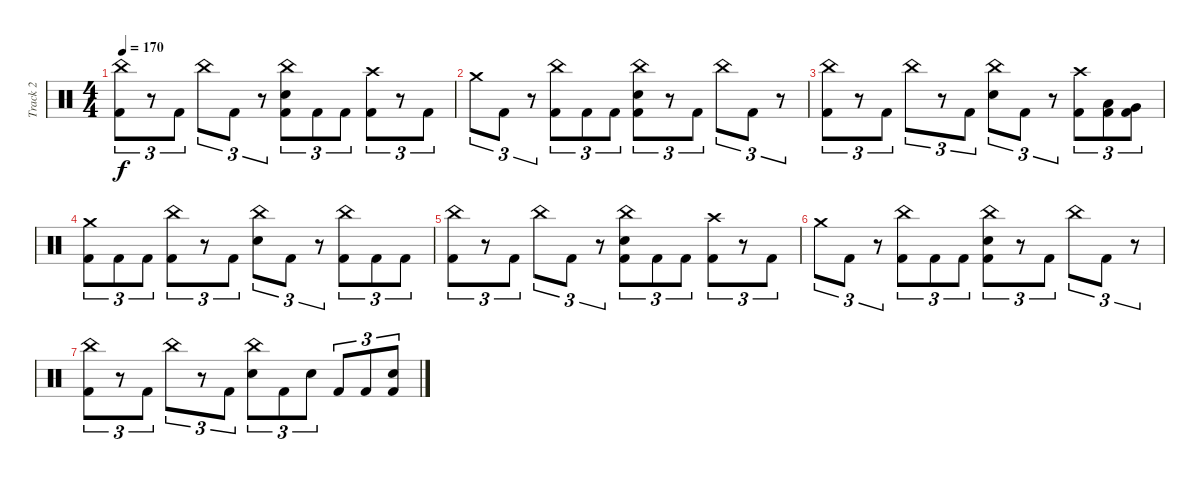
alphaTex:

\track ("Track 2" "Track 2") {instrument percussion}
\staff {score}
\articulation defaults
\ts (4 4)
\tempo 170
\clef neutral
\ks c
("China (hit)" "Kick (hit) 2").8{tu (3 2) dy f} r.8{tu (3 2)} "Kick (hit) 2".8{tu (3 2)} "China (hit)".8{tu (3 2)} "Kick (hit) 2".8{tu (3 2)} r.8{tu (3 2)} ("China (hit)" "Electric Snare (hit)" "Kick (hit) 2").8{tu (3 2)} "Kick (hit) 2".8{tu (3 2)} "Kick (hit) 2".8{tu (3 2)} ("Crash high (hit)" "Kick (hit) 2").8{tu (3 2)} r.8{tu (3 2)} "Kick (hit) 2".8{tu (3 2)} |
"Crash medium (hit)".8{tu (3 2)} "Kick (hit) 2".8{tu (3 2)} r.8{tu (3 2)} ("China (hit)" "Kick (hit) 2").8{tu (3 2)} "Kick (hit) 2".8{tu (3 2)} "Kick (hit) 2".8{tu (3 2)} ("China (hit)" "Electric Snare (hit)" "Kick (hit) 2").8{tu (3 2)} r.8{tu (3 2)} "Kick (hit) 2".8{tu (3 2)} "China (hit)".8{tu (3 2)} "Kick (hit) 2".8{tu (3 2)} r.8{tu (3 2)} |
("China (hit)" "Kick (hit) 2").8{tu (3 2)} r.8{tu (3 2)} "Kick (hit) 2".8{tu (3 2)} "China (hit)".8{tu (3 2)} r.8{tu (3 2)} "Kick (hit) 2".8{tu (3 2)} ("China (hit)" "Electric Snare (hit)").8{tu (3 2)} "Kick (hit) 2".8{tu (3 2)} r.8{tu (3 2)} ("Crash high (hit)" "Kick (hit) 2").8{tu (3 2)} ("Low Tom (hit)" "Kick (hit) 2").8{tu (3 2)} ("Very Low Tom (hit)" "Kick (hit) 2").8{tu (3 2)} |
("Crash medium (hit)" "Kick (hit) 2").8{tu (3 2)} "Kick (hit) 2".8{tu (3 2)} "Kick (hit) 2".8{tu (3 2)} ("China (hit)" "Kick (hit) 2").8{tu (3 2)} r.8{tu (3 2)} "Kick (hit) 2".8{tu (3 2)} ("China (hit)" "Electric Snare (hit)").8{tu (3 2)} "Kick (hit) 2".8{tu (3 2)} r.8{tu (3 2)} ("China (hit)" "Kick (hit) 2").8{tu (3 2)} "Kick (hit) 2".8{tu (3 2)} "Kick (hit) 2".8{tu (3 2)} |
("China (hit)" "Kick (hit) 2").8{tu (3 2)} r.8{tu (3 2)} "Kick (hit) 2".8{tu (3 2)} "China (hit)".8{tu (3 2)} "Kick (hit) 2".8{tu (3 2)} r.8{tu (3 2)} ("China (hit)" "Electric Snare (hit)" "Kick (hit) 2").8{tu (3 2)} "Kick (hit) 2".8{tu (3 2)} "Kick (hit) 2".8{tu (3 2)} ("Crash high (hit)" "Kick (hit) 2").8{tu (3 2)} r.8{tu (3 2)} "Kick (hit) 2".8{tu (3 2)} |
"Crash medium (hit)".8{tu (3 2)} "Kick (hit) 2".8{tu (3 2)} r.8{tu (3 2)} ("China (hit)" "Kick (hit) 2").8{tu (3 2)} "Kick (hit) 2".8{tu (3 2)} "Kick (hit) 2".8{tu (3 2)} ("China (hit)" "Electric Snare (hit)" "Kick (hit) 2").8{tu (3 2)} r.8{tu (3 2)} "Kick (hit) 2".8{tu (3 2)} "China (hit)".8{tu (3 2)} "Kick (hit) 2".8{tu (3 2)} r.8{tu (3 2)} |
("China (hit)" "Kick (hit) 2").8{tu (3 2)} r.8{tu (3 2)} "Kick (hit) 2".8{tu (3 2)} "China (hit)".8{tu (3 2)} r.8{tu (3 2)} "Kick (hit) 2".8{tu (3 2)} ("China (hit)" "Electric Snare (hit)").8{tu (3 2)} "Kick (hit) 2".8{tu (3 2)} "Electric Snare (hit)".8{tu (3 2)} "Kick (hit) 2".8{tu (3 2)} "Kick (hit) 2".8{tu (3 2)} ("Electric Snare (hit)" "Kick (hit) 2").8{tu (3 2)}
